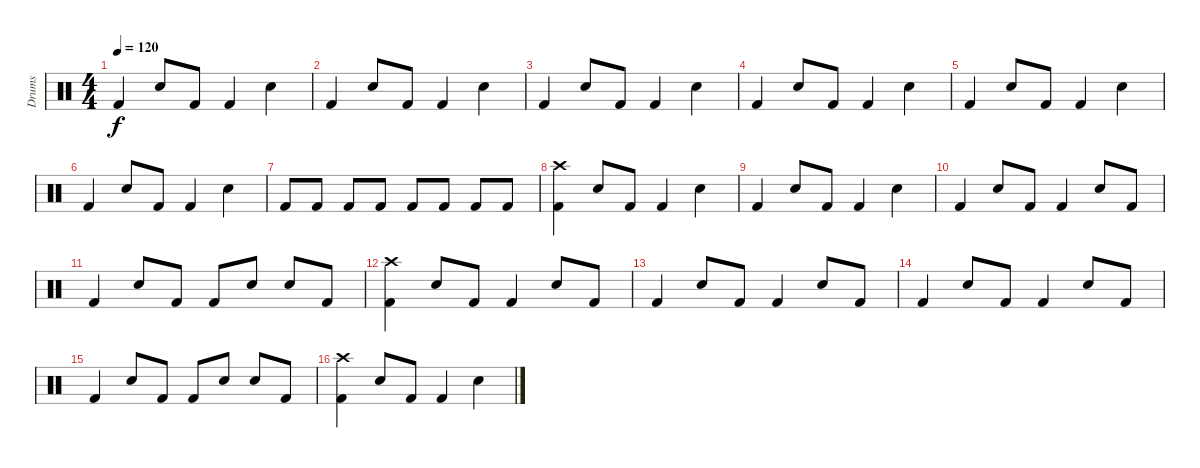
\track ("Drums" "Drums") {instrument percussion}
\staff {score}
\articulation defaults
\ts (4 4)
\tempo 120
\clef neutral
\ks c "Kick (hit) 2".4{dy f} "Electric Snare (hit)".8 "Kick (hit) 2".8 "Kick (hit) 2".4 "Electric Snare (hit)".4
|
"Kick (hit) 2".4 "Electric Snare (hit)".8 "Kick (hit) 2".8 "Kick (hit) 2".4 "Electric Snare (hit)".4 |
"Kick (hit) 2".4 "Electric Snare (hit)".8 "Kick (hit) 2".8 "Kick (hit) 2".4 "Electric Snare (hit)".4 |
"Kick (hit) 2".4 "Electric Snare (hit)".8 "Kick (hit) 2".8 "Kick (hit) 2".4 "Electric Snare (hit)".4 |
"Kick (hit) 2".4 "Electric Snare (hit)".8 "Kick (hit) 2".8 "Kick (hit) 2".4 "Electric Snare (hit)".4 |
"Kick (hit) 2".4 "Electric Snare (hit)".8 "Kick (hit) 2".8 "Kick (hit) 2".4 "Electric Snare (hit)".4 |
"Kick (hit) 2".8 "Kick (hit) 2".8 "Kick (hit) 2".8 "Kick (hit) 2".8 "Kick (hit) 2".8 "Kick (hit) 2".8 "Kick (hit) 2".8 "Kick (hit) 2".8 |
("Crash high (hit)" "Kick (hit) 2").4 "Electric Snare (hit)".8 "Kick (hit) 2".8 "Kick (hit) 2".4 "Electric Snare (hit)".4 |
"Kick (hit) 2".4 "Electric Snare (hit)".8 "Kick (hit) 2".8 "Kick (hit) 2".4 "Electric Snare (hit)".4 |
"Kick (hit) 2".4 "Electric Snare (hit)".8 "Kick (hit) 2".8 "Kick (hit) 2".4 "Electric Snare (hit)".8 "Kick (hit) 2".8 |
"Kick (hit) 2".4 "Electric Snare (hit)".8 "Kick (hit) 2".8 "Kick (hit) 2".8 "Electric Snare (hit)".8 "Electric Snare (hit)".8 "Kick (hit) 2".8 |
("Crash high (hit)" "Kick (hit) 2").4 "Electric Snare (hit)".8 "Kick (hit) 2".8 "Kick (hit) 2".4 "Electric Snare (hit)".8 "Kick (hit) 2".8 |
"Kick (hit) 2".4 "Electric Snare (hit)".8 "Kick (hit) 2".8 "Kick (hit) 2".4 "Electric Snare (hit)".8 "Kick (hit) 2".8 |
"Kick (hit) 2".4 "Electric Snare (hit)".8 "Kick (hit) 2".8 "Kick (hit) 2".4 "Electric Snare (hit)".8 "Kick (hit) 2".8 |
"Kick (hit) 2".4 "Electric Snare (hit)".8 "Kick (hit) 2".8 "Kick (hit) 2".8 "Electric Snare (hit)".8 "Electric Snare (hit)".8 "Kick (hit) 2".8 |
("Crash high (hit)" "Kick (hit) 2").4 "Electric Snare (hit)".8 "Kick (hit) 2".8 "Kick (hit) 2".4 "Electric Snare (hit)".4
